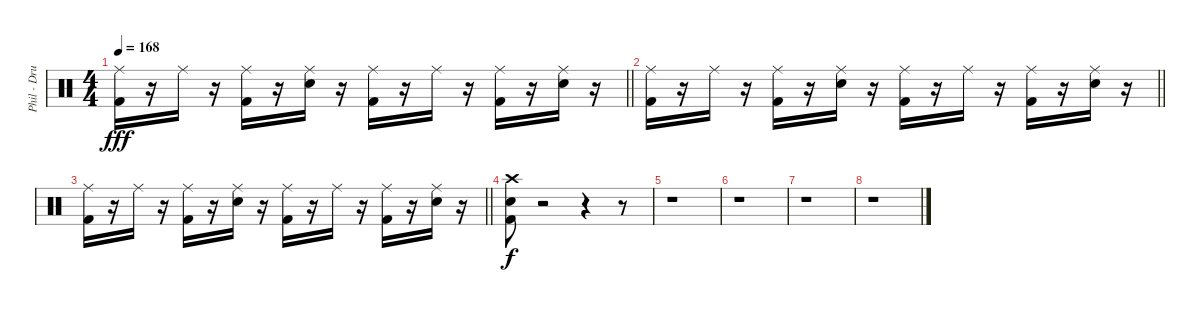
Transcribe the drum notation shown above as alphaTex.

\track ("Phil - Drums" "Phil - Dru") {instrument percussion}
\staff {score}
\articulation defaults
\ts (4 4)
\tempo 168
\clef neutral
\barLineRight lightlight
\ks c
("Ride (middle)" "Kick (hit) 2").16{dy fff} r.16 "Ride (middle)".16 r.16 ("Ride (middle)" "Kick (hit) 2").16 r.16 ("Ride (middle)" "Electric Snare (hit)").16 r.16 ("Ride (middle)" "Kick (hit) 2").16 r.16 "Ride (middle)".16 r.16 ("Ride (middle)" "Kick (hit) 2").16 r.16 ("Ride (middle)" "Electric Snare (hit)").16 r.16 |
\barLineRight lightlight
("Ride (middle)" "Kick (hit) 2").16 r.16 "Ride (middle)".16 r.16 ("Ride (middle)" "Kick (hit) 2").16 r.16 ("Ride (middle)" "Electric Snare (hit)").16 r.16 ("Ride (middle)" "Kick (hit) 2").16 r.16 "Ride (middle)".16 r.16 ("Ride (middle)" "Kick (hit) 2").16 r.16 ("Ride (middle)" "Electric Snare (hit)").16 r.16 |
\barLineRight lightlight
("Ride (middle)" "Kick (hit) 2").16 r.16 "Ride (middle)".16 r.16 ("Ride (middle)" "Kick (hit) 2").16 r.16 ("Ride (middle)" "Electric Snare (hit)").16 r.16 ("Ride (middle)" "Kick (hit) 2").16 r.16 "Ride (middle)".16 r.16 ("Ride (middle)" "Kick (hit) 2").16 r.16 ("Ride (middle)" "Electric Snare (hit)").16 r.16 |
("Crash high (hit)" "Electric Snare (hit)" "Kick (hit) 2").8{dy f} r.2 r.4 r.8 |
r.1 |
r.1 |
r.1 |
r.1
